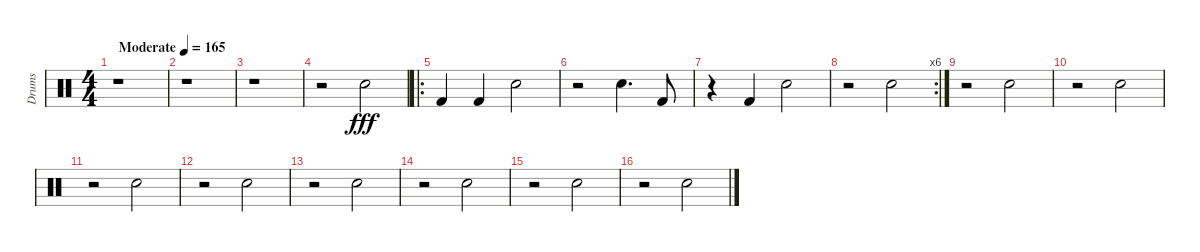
\track ("Drums" "Drums") {instrument percussion}
\staff {score}
\articulation defaults
\ts (4 4)
\tempo (165 "Moderate")
\clef neutral
\ks c
r.1{dy fff} |
r.1 |
r.1 |
r.2 "Hand Clap (hit)".2 |
\ro "Kick (hit) 2".4 "Kick (hit) 2".4 "Hand Clap (hit)".2
|
r.2 "Hand Clap (hit)".4{d} "Kick (hit) 2".8 |
r.4 "Kick (hit) 2".4 "Hand Clap (hit)".2 |
\rc 6
r.2 "Hand Clap (hit)".2 |
r.2 "Hand Clap (hit)".2 |
r.2 "Hand Clap (hit)".2 |
r.2 "Hand Clap (hit)".2 |
r.2 "Hand Clap (hit)".2 |
r.2 "Hand Clap (hit)".2 |
r.2 "Hand Clap (hit)".2 |
r.2 "Hand Clap (hit)".2 |
r.2 "Hand Clap (hit)".2
